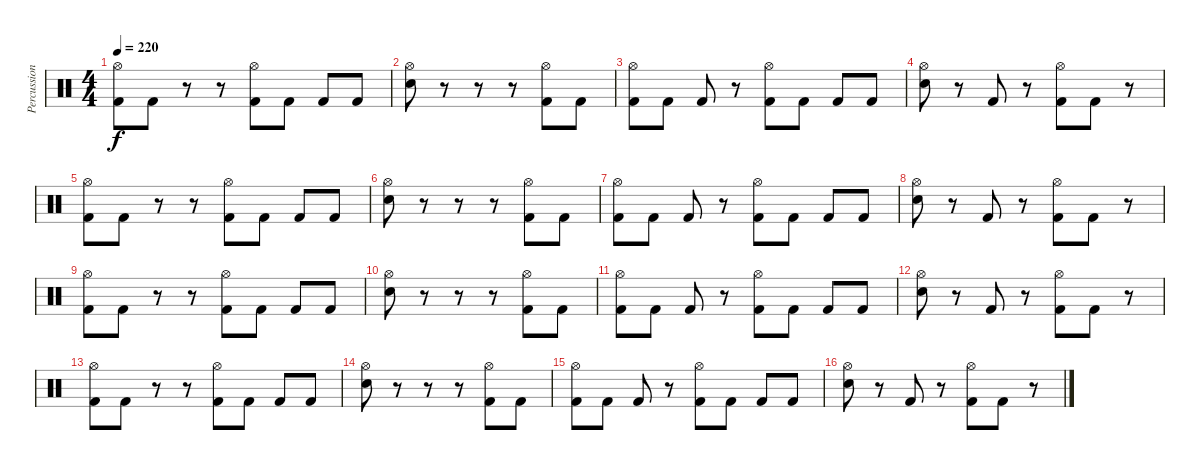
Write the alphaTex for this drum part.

\track ("Percussion" "Percussion") {instrument percussion}
\staff {score}
\articulation defaults
\ts (4 4)
\tempo 220
\clef neutral
\ks c
("Hi-Hat (open)" "Kick (hit) 2").8{dy f} "Kick (hit) 2".8 r.8 r.8 ("Hi-Hat (open)" "Kick (hit) 2").8 "Kick (hit) 2".8 "Kick (hit) 2".8 "Kick (hit) 2".8 |
("Hi-Hat (open)" "Snare (hit) 2").8 r.8 r.8 r.8 ("Hi-Hat (open)" "Kick (hit) 2").8 "Kick (hit) 2".8 |
("Hi-Hat (open)" "Kick (hit) 2").8 "Kick (hit) 2".8 "Kick (hit) 2".8 r.8 ("Hi-Hat (open)" "Kick (hit) 2").8 "Kick (hit) 2".8 "Kick (hit) 2".8 "Kick (hit) 2".8 |
("Hi-Hat (open)" "Snare (hit) 2").8 r.8 "Kick (hit) 2".8 r.8 ("Hi-Hat (open)" "Kick (hit) 2").8 "Kick (hit) 2".8 r.8 |
("Hi-Hat (open)" "Kick (hit) 2").8 "Kick (hit) 2".8 r.8 r.8 ("Hi-Hat (open)" "Kick (hit) 2").8 "Kick (hit) 2".8 "Kick (hit) 2".8 "Kick (hit) 2".8 |
("Hi-Hat (open)" "Snare (hit) 2").8 r.8 r.8 r.8 ("Hi-Hat (open)" "Kick (hit) 2").8 "Kick (hit) 2".8 |
("Hi-Hat (open)" "Kick (hit) 2").8 "Kick (hit) 2".8 "Kick (hit) 2".8 r.8 ("Hi-Hat (open)" "Kick (hit) 2").8 "Kick (hit) 2".8 "Kick (hit) 2".8 "Kick (hit) 2".8 |
("Hi-Hat (open)" "Snare (hit) 2").8 r.8 "Kick (hit) 2".8 r.8 ("Hi-Hat (open)" "Kick (hit) 2").8 "Kick (hit) 2".8 r.8 |
("Hi-Hat (open)" "Kick (hit) 2").8 "Kick (hit) 2".8 r.8 r.8 ("Hi-Hat (open)" "Kick (hit) 2").8 "Kick (hit) 2".8 "Kick (hit) 2".8 "Kick (hit) 2".8 |
("Hi-Hat (open)" "Snare (hit) 2").8 r.8 r.8 r.8 ("Hi-Hat (open)" "Kick (hit) 2").8 "Kick (hit) 2".8 |
("Hi-Hat (open)" "Kick (hit) 2").8 "Kick (hit) 2".8 "Kick (hit) 2".8 r.8 ("Hi-Hat (open)" "Kick (hit) 2").8 "Kick (hit) 2".8 "Kick (hit) 2".8 "Kick (hit) 2".8 |
("Hi-Hat (open)" "Snare (hit) 2").8 r.8 "Kick (hit) 2".8 r.8 ("Hi-Hat (open)" "Kick (hit) 2").8 "Kick (hit) 2".8 r.8 |
("Hi-Hat (open)" "Kick (hit) 2").8 "Kick (hit) 2".8 r.8 r.8 ("Hi-Hat (open)" "Kick (hit) 2").8 "Kick (hit) 2".8 "Kick (hit) 2".8 "Kick (hit) 2".8 |
("Hi-Hat (open)" "Snare (hit) 2").8 r.8 r.8 r.8 ("Hi-Hat (open)" "Kick (hit) 2").8 "Kick (hit) 2".8 |
("Hi-Hat (open)" "Kick (hit) 2").8 "Kick (hit) 2".8 "Kick (hit) 2".8 r.8 ("Hi-Hat (open)" "Kick (hit) 2").8 "Kick (hit) 2".8 "Kick (hit) 2".8 "Kick (hit) 2".8 |
("Hi-Hat (open)" "Snare (hit) 2").8 r.8 "Kick (hit) 2".8 r.8 ("Hi-Hat (open)" "Kick (hit) 2").8 "Kick (hit) 2".8 r.8
